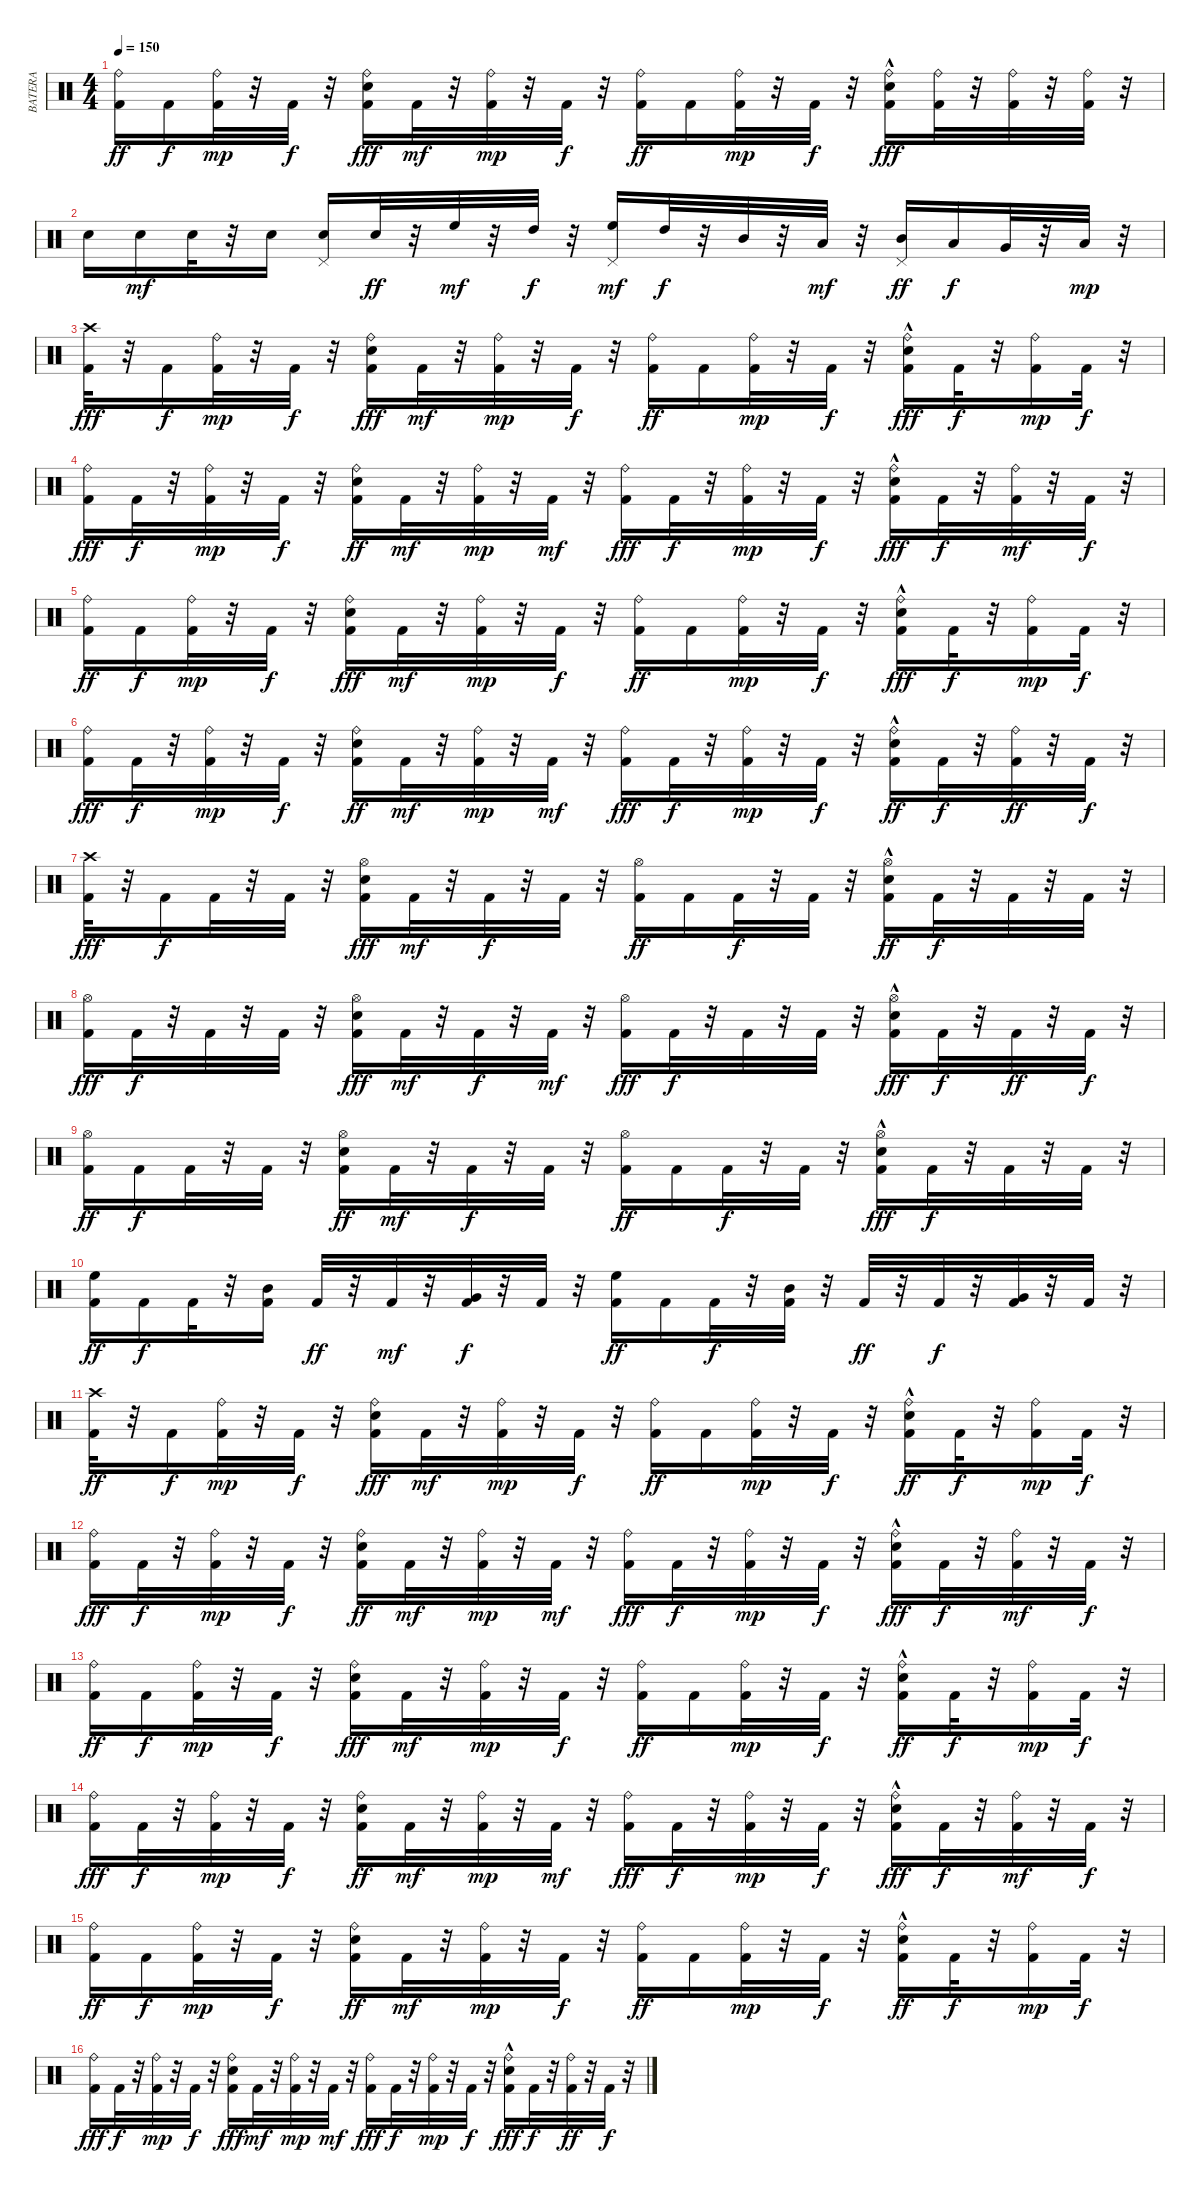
\track ("BATERA" "BATERA") {instrument percussion}
\staff {score}
\articulation defaults
\ts (4 4)
\tempo 150
\clef neutral
\ks c
("Ride (bell)" "Kick (hit) 2").16{dy ff} "Kick (hit) 2".16{dy f} ("Ride (bell)" "Kick (hit) 2").32{dy mp} r.32 "Kick (hit) 2".32{dy f} r.32 ("Kick (hit) 2" "Electric Snare (hit)" "Ride (bell)").16{dy fff} "Kick (hit) 2".32{dy mf} r.32 ("Kick (hit) 2" "Ride (bell)").32{dy mp} r.32 "Kick (hit) 2".32{dy f} r.32 ("Ride (bell)" "Kick (hit) 2").16{dy ff} "Kick (hit) 2".16 ("Ride (bell)" "Kick (hit) 2").32{dy mp} r.32 "Kick (hit) 2".32{dy f} r.32 ("Electric Snare (hit)"{hac} "Kick (hit) 2" "Ride (bell)").16{dy fff} ("Kick (hit) 2" "Ride (bell)").32 r.32 ("Ride (bell)" "Kick (hit) 2").32 r.32 ("Ride (bell)" "Kick (hit) 2").32 r.32 |
"Electric Snare (hit)".16 "Electric Snare (hit)".16{dy mf} "Electric Snare (hit)".32 r.32 "Electric Snare (hit)".16 ("Electric Snare (hit)" "Pedal Hi-Hat (hit)").16 "Electric Snare (hit)".32{dy ff} r.32 "High Floor Tom (hit)".32{dy mf} r.32 "High Tom (hit)".32{dy f} r.32 ("High Floor Tom (hit)" "Pedal Hi-Hat (hit)").16{dy mf} "High Tom (hit)".32{dy f} r.32 "Mid Tom (hit)".32 r.32 "Low Tom (hit)".32{dy mf} r.32 ("Pedal Hi-Hat (hit)" "Mid Tom (hit)").16{dy ff} "Low Tom (hit)".16{dy f} "Very Low Tom (hit)".32 r.32 "Low Floor Tom (hit)".32{dy mp} r.32 |
("Kick (hit) 2" "Crash high (hit)").32{dy fff} r.32 "Kick (hit) 2".16{dy f} ("Ride (bell)" "Kick (hit) 2").32{dy mp} r.32 "Kick (hit) 2".32{dy f} r.32 ("Electric Snare (hit)" "Kick (hit) 2" "Ride (bell)").16{dy fff} "Kick (hit) 2".32{dy mf} r.32 ("Kick (hit) 2" "Ride (bell)").32{dy mp} r.32 "Kick (hit) 2".32{dy f} r.32 ("Kick (hit) 2" "Ride (bell)").16{dy ff} "Kick (hit) 2".16 ("Ride (bell)" "Kick (hit) 2").32{dy mp} r.32 "Kick (hit) 2".32{dy f} r.32 ("Kick (hit) 2" "Ride (bell)" "Electric Snare (hit)"{hac}).16{dy fff} "Kick (hit) 2".32{dy f} r.32 ("Ride (bell)" "Kick (hit) 2").16{dy mp} "Kick (hit) 2".32{dy f} r.32 |
("Ride (bell)" "Kick (hit) 2").16{dy fff} "Kick (hit) 2".32{dy f} r.32 ("Ride (bell)" "Kick (hit) 2").32{dy mp} r.32 "Kick (hit) 2".32{dy f} r.32 ("Kick (hit) 2" "Electric Snare (hit)" "Ride (bell)").16{dy ff} "Kick (hit) 2".32{dy mf} r.32 ("Ride (bell)" "Kick (hit) 2").32{dy mp} r.32 "Kick (hit) 2".32{dy mf} r.32 ("Kick (hit) 2" "Ride (bell)").16{dy fff} "Kick (hit) 2".32{dy f} r.32 ("Ride (bell)" "Kick (hit) 2").32{dy mp} r.32 "Kick (hit) 2".32{dy f} r.32 ("Ride (bell)" "Electric Snare (hit)"{hac} "Kick (hit) 2").16{dy fff} "Kick (hit) 2".32{dy f} r.32 ("Kick (hit) 2" "Ride (bell)").32{dy mf} r.32 "Kick (hit) 2".32{dy f} r.32 |
("Kick (hit) 2" "Ride (bell)").16{dy ff} "Kick (hit) 2".16{dy f} ("Ride (bell)" "Kick (hit) 2").32{dy mp} r.32 "Kick (hit) 2".32{dy f} r.32 ("Electric Snare (hit)" "Kick (hit) 2" "Ride (bell)").16{dy fff} "Kick (hit) 2".32{dy mf} r.32 ("Ride (bell)" "Kick (hit) 2").32{dy mp} r.32 "Kick (hit) 2".32{dy f} r.32 ("Ride (bell)" "Kick (hit) 2").16{dy ff} "Kick (hit) 2".16 ("Kick (hit) 2" "Ride (bell)").32{dy mp} r.32 "Kick (hit) 2".32{dy f} r.32 ("Kick (hit) 2" "Ride (bell)" "Electric Snare (hit)"{hac}).16{dy fff} "Kick (hit) 2".32{dy f} r.32 ("Ride (bell)" "Kick (hit) 2").16{dy mp} "Kick (hit) 2".32{dy f} r.32 |
("Ride (bell)" "Kick (hit) 2").16{dy fff} "Kick (hit) 2".32{dy f} r.32 ("Kick (hit) 2" "Ride (bell)").32{dy mp} r.32 "Kick (hit) 2".32{dy f} r.32 ("Kick (hit) 2" "Electric Snare (hit)" "Ride (bell)").16{dy ff} "Kick (hit) 2".32{dy mf} r.32 ("Ride (bell)" "Kick (hit) 2").32{dy mp} r.32 "Kick (hit) 2".32{dy mf} r.32 ("Ride (bell)" "Kick (hit) 2").16{dy fff} "Kick (hit) 2".32{dy f} r.32 ("Kick (hit) 2" "Ride (bell)").32{dy mp} r.32 "Kick (hit) 2".32{dy f} r.32 ("Kick (hit) 2" "Electric Snare (hit)"{hac} "Ride (bell)").16{dy ff} "Kick (hit) 2".32{dy f} r.32 ("Ride (bell)" "Kick (hit) 2").32{dy ff} r.32 "Kick (hit) 2".32{dy f} r.32 |
("Kick (hit) 2" "Crash high (hit)").32{dy fff} r.32 "Kick (hit) 2".16{dy f} "Kick (hit) 2".32 r.32 "Kick (hit) 2".32 r.32 ("Kick (hit) 2" "Hi-Hat (open)" "Electric Snare (hit)").16{dy fff} "Kick (hit) 2".32{dy mf} r.32 "Kick (hit) 2".32{dy f} r.32 "Kick (hit) 2".32 r.32 ("Hi-Hat (open)" "Kick (hit) 2").16{dy ff} "Kick (hit) 2".16 "Kick (hit) 2".32{dy f} r.32 "Kick (hit) 2".32 r.32 ("Electric Snare (hit)"{hac} "Kick (hit) 2" "Hi-Hat (open)").16{dy ff} "Kick (hit) 2".32{dy f} r.32 "Kick (hit) 2".32 r.32 "Kick (hit) 2".32 r.32 |
("Kick (hit) 2" "Hi-Hat (open)").16{dy fff} "Kick (hit) 2".32{dy f} r.32 "Kick (hit) 2".32 r.32 "Kick (hit) 2".32 r.32 ("Kick (hit) 2" "Electric Snare (hit)" "Hi-Hat (open)").16{dy fff} "Kick (hit) 2".32{dy mf} r.32 "Kick (hit) 2".32{dy f} r.32 "Kick (hit) 2".32{dy mf} r.32 ("Hi-Hat (open)" "Kick (hit) 2").16{dy fff} "Kick (hit) 2".32{dy f} r.32 "Kick (hit) 2".32 r.32 "Kick (hit) 2".32 r.32 ("Hi-Hat (open)" "Kick (hit) 2" "Electric Snare (hit)"{hac}).16{dy fff} "Kick (hit) 2".32{dy f} r.32 "Kick (hit) 2".32{dy ff} r.32 "Kick (hit) 2".32{dy f} r.32 |
("Hi-Hat (open)" "Kick (hit) 2").16{dy ff} "Kick (hit) 2".16{dy f} "Kick (hit) 2".32 r.32 "Kick (hit) 2".32 r.32 ("Electric Snare (hit)" "Hi-Hat (open)" "Kick (hit) 2").16{dy ff} "Kick (hit) 2".32{dy mf} r.32 "Kick (hit) 2".32{dy f} r.32 "Kick (hit) 2".32 r.32 ("Hi-Hat (open)" "Kick (hit) 2").16{dy ff} "Kick (hit) 2".16 "Kick (hit) 2".32{dy f} r.32 "Kick (hit) 2".32 r.32 ("Kick (hit) 2" "Hi-Hat (open)" "Electric Snare (hit)"{hac}).16{dy fff} "Kick (hit) 2".32{dy f} r.32 "Kick (hit) 2".32 r.32 "Kick (hit) 2".32 r.32 |
("High Floor Tom (hit)" "Kick (hit) 2").16{dy ff} "Kick (hit) 2".16{dy f} "Kick (hit) 2".32 r.32 ("Kick (hit) 2" "Mid Tom (hit)").16 "Kick (hit) 2".32{dy ff} r.32 "Kick (hit) 2".32{dy mf} r.32 ("Kick (hit) 2" "Very Low Tom (hit)").32{dy f} r.32 "Kick (hit) 2".32 r.32 ("High Floor Tom (hit)" "Kick (hit) 2").16{dy ff} "Kick (hit) 2".16 "Kick (hit) 2".32{dy f} r.32 ("Kick (hit) 2" "Mid Tom (hit)").32 r.32 "Kick (hit) 2".32{dy ff} r.32 "Kick (hit) 2".32{dy f} r.32 ("Kick (hit) 2" "Very Low Tom (hit)").32 r.32 "Kick (hit) 2".32 r.32 |
("Crash high (hit)" "Kick (hit) 2").32{dy ff} r.32 "Kick (hit) 2".16{dy f} ("Ride (bell)" "Kick (hit) 2").32{dy mp} r.32 "Kick (hit) 2".32{dy f} r.32 ("Ride (bell)" "Kick (hit) 2" "Electric Snare (hit)").16{dy fff} "Kick (hit) 2".32{dy mf} r.32 ("Ride (bell)" "Kick (hit) 2").32{dy mp} r.32 "Kick (hit) 2".32{dy f} r.32 ("Ride (bell)" "Kick (hit) 2").16{dy ff} "Kick (hit) 2".16 ("Kick (hit) 2" "Ride (bell)").32{dy mp} r.32 "Kick (hit) 2".32{dy f} r.32 ("Electric Snare (hit)"{hac} "Ride (bell)" "Kick (hit) 2").16{dy ff} "Kick (hit) 2".32{dy f} r.32 ("Kick (hit) 2" "Ride (bell)").16{dy mp} "Kick (hit) 2".32{dy f} r.32 |
("Ride (bell)" "Kick (hit) 2").16{dy fff} "Kick (hit) 2".32{dy f} r.32 ("Ride (bell)" "Kick (hit) 2").32{dy mp} r.32 "Kick (hit) 2".32{dy f} r.32 ("Kick (hit) 2" "Electric Snare (hit)" "Ride (bell)").16{dy ff} "Kick (hit) 2".32{dy mf} r.32 ("Kick (hit) 2" "Ride (bell)").32{dy mp} r.32 "Kick (hit) 2".32{dy mf} r.32 ("Ride (bell)" "Kick (hit) 2").16{dy fff} "Kick (hit) 2".32{dy f} r.32 ("Kick (hit) 2" "Ride (bell)").32{dy mp} r.32 "Kick (hit) 2".32{dy f} r.32 ("Ride (bell)" "Kick (hit) 2" "Electric Snare (hit)"{hac}).16{dy fff} "Kick (hit) 2".32{dy f} r.32 ("Kick (hit) 2" "Ride (bell)").32{dy mf} r.32 "Kick (hit) 2".32{dy f} r.32 |
("Kick (hit) 2" "Ride (bell)").16{dy ff} "Kick (hit) 2".16{dy f} ("Kick (hit) 2" "Ride (bell)").32{dy mp} r.32 "Kick (hit) 2".32{dy f} r.32 ("Electric Snare (hit)" "Kick (hit) 2" "Ride (bell)").16{dy fff} "Kick (hit) 2".32{dy mf} r.32 ("Kick (hit) 2" "Ride (bell)").32{dy mp} r.32 "Kick (hit) 2".32{dy f} r.32 ("Ride (bell)" "Kick (hit) 2").16{dy ff} "Kick (hit) 2".16 ("Kick (hit) 2" "Ride (bell)").32{dy mp} r.32 "Kick (hit) 2".32{dy f} r.32 ("Electric Snare (hit)"{hac} "Ride (bell)" "Kick (hit) 2").16{dy ff} "Kick (hit) 2".32{dy f} r.32 ("Ride (bell)" "Kick (hit) 2").16{dy mp} "Kick (hit) 2".32{dy f} r.32 |
("Ride (bell)" "Kick (hit) 2").16{dy fff} "Kick (hit) 2".32{dy f} r.32 ("Kick (hit) 2" "Ride (bell)").32{dy mp} r.32 "Kick (hit) 2".32{dy f} r.32 ("Electric Snare (hit)" "Kick (hit) 2" "Ride (bell)").16{dy ff} "Kick (hit) 2".32{dy mf} r.32 ("Ride (bell)" "Kick (hit) 2").32{dy mp} r.32 "Kick (hit) 2".32{dy mf} r.32 ("Kick (hit) 2" "Ride (bell)").16{dy fff} "Kick (hit) 2".32{dy f} r.32 ("Kick (hit) 2" "Ride (bell)").32{dy mp} r.32 "Kick (hit) 2".32{dy f} r.32 ("Kick (hit) 2" "Ride (bell)" "Electric Snare (hit)"{hac}).16{dy fff} "Kick (hit) 2".32{dy f} r.32 ("Kick (hit) 2" "Ride (bell)").32{dy mf} r.32 "Kick (hit) 2".32{dy f} r.32 |
("Kick (hit) 2" "Ride (bell)").16{dy ff} "Kick (hit) 2".16{dy f} ("Ride (bell)" "Kick (hit) 2").32{dy mp} r.32 "Kick (hit) 2".32{dy f} r.32 ("Ride (bell)" "Electric Snare (hit)" "Kick (hit) 2").16{dy ff} "Kick (hit) 2".32{dy mf} r.32 ("Kick (hit) 2" "Ride (bell)").32{dy mp} r.32 "Kick (hit) 2".32{dy f} r.32 ("Ride (bell)" "Kick (hit) 2").16{dy ff} "Kick (hit) 2".16 ("Kick (hit) 2" "Ride (bell)").32{dy mp} r.32 "Kick (hit) 2".32{dy f} r.32 ("Electric Snare (hit)"{hac} "Kick (hit) 2" "Ride (bell)").16{dy ff} "Kick (hit) 2".32{dy f} r.32 ("Ride (bell)" "Kick (hit) 2").16{dy mp} "Kick (hit) 2".32{dy f} r.32 |
("Kick (hit) 2" "Ride (bell)").16{dy fff} "Kick (hit) 2".32{dy f} r.32 ("Kick (hit) 2" "Ride (bell)").32{dy mp} r.32 "Kick (hit) 2".32{dy f} r.32 ("Ride (bell)" "Kick (hit) 2" "Electric Snare (hit)").16{dy fff} "Kick (hit) 2".32{dy mf} r.32 ("Ride (bell)" "Kick (hit) 2").32{dy mp} r.32 "Kick (hit) 2".32{dy mf} r.32 ("Ride (bell)" "Kick (hit) 2").16{dy fff} "Kick (hit) 2".32{dy f} r.32 ("Ride (bell)" "Kick (hit) 2").32{dy mp} r.32 "Kick (hit) 2".32{dy f} r.32 ("Kick (hit) 2" "Ride (bell)" "Electric Snare (hit)"{hac}).16{dy fff} "Kick (hit) 2".32{dy f} r.32 ("Ride (bell)" "Kick (hit) 2").32{dy ff} r.32 "Kick (hit) 2".32{dy f} r.32
